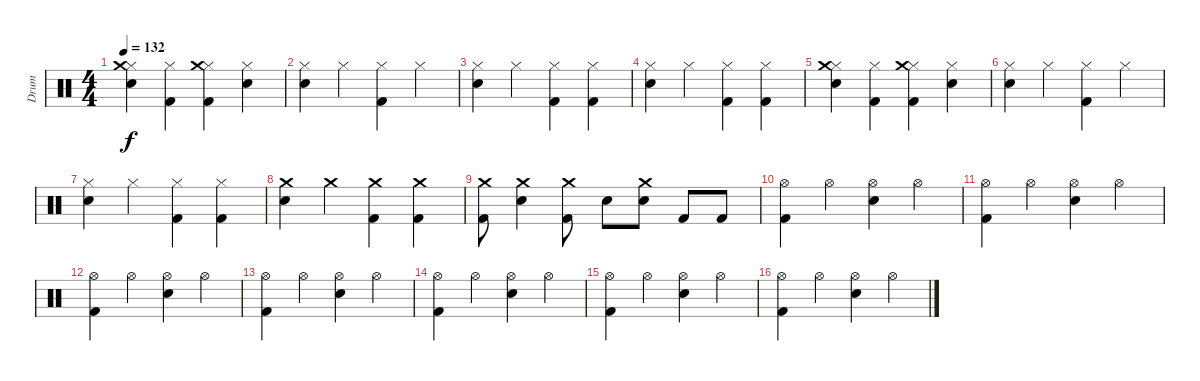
\track ("Drum" "Drum") {instrument percussion}
\staff {score}
\articulation defaults
\ts (4 4)
\tempo 132
\clef neutral
\ks c
("Hi-Hat (closed)" "Snare (hit) 2" "Crash medium (hit)").4{dy f} ("Hi-Hat (closed)" "Kick (hit) 2").4 ("Hi-Hat (closed)" "Kick (hit) 2" "Crash medium (hit)").4 ("Hi-Hat (closed)" "Snare (hit) 2").4 |
("Hi-Hat (closed)" "Snare (hit) 2").4 "Hi-Hat (closed)".4 ("Hi-Hat (closed)" "Kick (hit) 2").4 "Hi-Hat (closed)".4 |
("Hi-Hat (closed)" "Snare (hit) 2").4 "Hi-Hat (closed)".4 ("Hi-Hat (closed)" "Kick (hit) 2").4 ("Hi-Hat (closed)" "Kick (hit) 2").4 |
("Hi-Hat (closed)" "Snare (hit) 2").4 "Hi-Hat (closed)".4 ("Hi-Hat (closed)" "Kick (hit) 2").4 ("Hi-Hat (closed)" "Kick (hit) 2").4 |
("Hi-Hat (closed)" "Snare (hit) 2" "Crash medium (hit)").4 ("Hi-Hat (closed)" "Kick (hit) 2").4 ("Hi-Hat (closed)" "Kick (hit) 2" "Crash medium (hit)").4 ("Hi-Hat (closed)" "Snare (hit) 2").4 |
("Hi-Hat (closed)" "Snare (hit) 2").4 "Hi-Hat (closed)".4 ("Hi-Hat (closed)" "Kick (hit) 2").4 "Hi-Hat (closed)".4 |
("Hi-Hat (closed)" "Snare (hit) 2").4 "Hi-Hat (closed)".4 ("Hi-Hat (closed)" "Kick (hit) 2").4 ("Hi-Hat (closed)" "Kick (hit) 2").4 |
("Crash medium (hit)" "Snare (hit) 2").4 "Crash medium (hit)".4 ("Crash medium (hit)" "Kick (hit) 2").4 ("Crash medium (hit)" "Kick (hit) 2").4 |
("Crash medium (hit)" "Kick (hit) 2").8 ("Crash medium (hit)" "Snare (hit) 2").4 ("Crash medium (hit)" "Kick (hit) 2").8 "Snare (hit) 2".8 ("Crash medium (hit)" "Snare (hit) 2").8 "Kick (hit) 2".8 "Kick (hit) 2".8 |
("Hi-Hat (open)" "Kick (hit) 2").4 "Hi-Hat (open)".4 ("Hi-Hat (open)" "Snare (hit) 2").4 "Hi-Hat (open)".4 |
("Hi-Hat (open)" "Kick (hit) 2").4 "Hi-Hat (open)".4 ("Hi-Hat (open)" "Snare (hit) 2").4 "Hi-Hat (open)".4 |
("Hi-Hat (open)" "Kick (hit) 2").4 "Hi-Hat (open)".4 ("Hi-Hat (open)" "Snare (hit) 2").4 "Hi-Hat (open)".4 |
("Hi-Hat (open)" "Kick (hit) 2").4 "Hi-Hat (open)".4 ("Hi-Hat (open)" "Snare (hit) 2").4 "Hi-Hat (open)".4 |
("Hi-Hat (open)" "Kick (hit) 2").4 "Hi-Hat (open)".4 ("Hi-Hat (open)" "Snare (hit) 2").4 "Hi-Hat (open)".4 |
("Hi-Hat (open)" "Kick (hit) 2").4 "Hi-Hat (open)".4 ("Hi-Hat (open)" "Snare (hit) 2").4 "Hi-Hat (open)".4 |
("Hi-Hat (open)" "Kick (hit) 2").4 "Hi-Hat (open)".4 ("Hi-Hat (open)" "Snare (hit) 2").4 "Hi-Hat (open)".4
